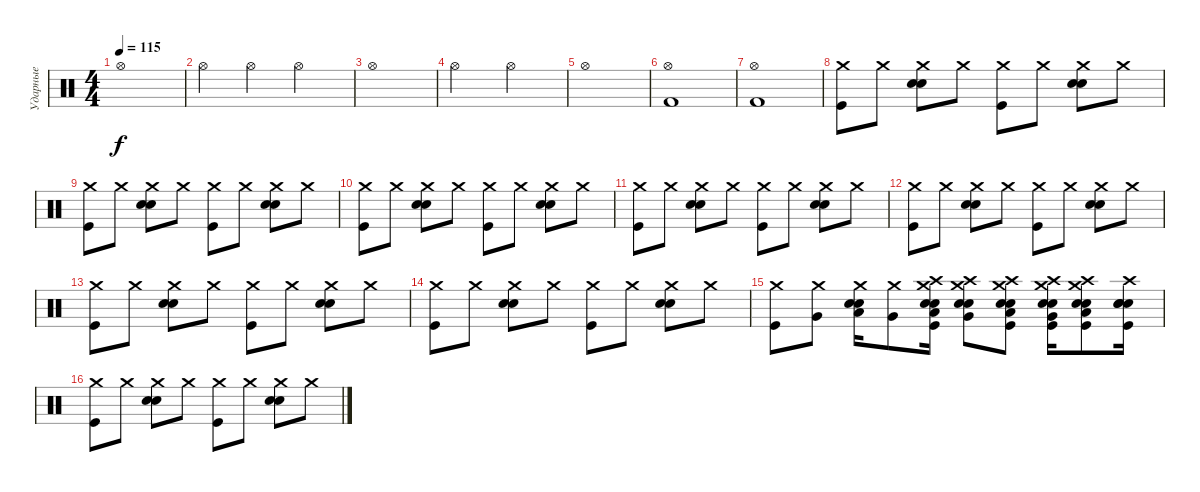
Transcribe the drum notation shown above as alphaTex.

\track ("Ударные" "Ударные") {instrument percussion}
\staff {score}
\articulation defaults
\ts (4 4)
\tempo 115
\clef neutral
\ks c "Hi-Hat (open)".1{dy f}
|
"Hi-Hat (open)".4 "Hi-Hat (open)".4 "Hi-Hat (open)".2 |
"Hi-Hat (open)".1 |
"Hi-Hat (open)".2 "Hi-Hat (open)".2 |
"Hi-Hat (open)".1 |
("Hi-Hat (open)" "Kick (hit) 2").1 |
("Hi-Hat (open)" "Kick (hit) 2").1 |
("Crash medium (hit)" "Kick (hit)").8 "Crash medium (hit)".8 ("Crash medium (hit)" "Snare (hit) 2" "Snare (hit) 2").8 "Crash medium (hit)".8 ("Crash medium (hit)" "Kick (hit)").8 "Crash medium (hit)".8 ("Crash medium (hit)" "Snare (hit) 2" "Snare (hit) 2").8 "Crash medium (hit)".8 |
("Crash medium (hit)" "Kick (hit)").8 "Crash medium (hit)".8 ("Crash medium (hit)" "Snare (hit) 2" "Snare (hit) 2").8 "Crash medium (hit)".8 ("Crash medium (hit)" "Kick (hit)").8 "Crash medium (hit)".8 ("Crash medium (hit)" "Snare (hit) 2" "Snare (hit) 2").8 "Crash medium (hit)".8 |
("Crash medium (hit)" "Kick (hit)").8 "Crash medium (hit)".8 ("Crash medium (hit)" "Snare (hit) 2" "Snare (hit) 2").8 "Crash medium (hit)".8 ("Crash medium (hit)" "Kick (hit)").8 "Crash medium (hit)".8 ("Crash medium (hit)" "Snare (hit) 2" "Snare (hit) 2").8 "Crash medium (hit)".8 |
("Crash medium (hit)" "Kick (hit)").8 "Crash medium (hit)".8 ("Crash medium (hit)" "Snare (hit) 2" "Snare (hit) 2").8 "Crash medium (hit)".8 ("Crash medium (hit)" "Kick (hit)").8 "Crash medium (hit)".8 ("Crash medium (hit)" "Snare (hit) 2" "Snare (hit) 2").8 "Crash medium (hit)".8 |
("Crash medium (hit)" "Kick (hit)").8 "Crash medium (hit)".8 ("Crash medium (hit)" "Snare (hit) 2" "Snare (hit) 2").8 "Crash medium (hit)".8 ("Crash medium (hit)" "Kick (hit)").8 "Crash medium (hit)".8 ("Crash medium (hit)" "Snare (hit) 2" "Snare (hit) 2").8 "Crash medium (hit)".8 |
("Crash medium (hit)" "Kick (hit)").8 "Crash medium (hit)".8 ("Crash medium (hit)" "Snare (hit) 2" "Snare (hit) 2").8 "Crash medium (hit)".8 ("Crash medium (hit)" "Kick (hit)").8 "Crash medium (hit)".8 ("Crash medium (hit)" "Snare (hit) 2" "Snare (hit) 2").8 "Crash medium (hit)".8 |
("Crash medium (hit)" "Kick (hit)").8 "Crash medium (hit)".8 ("Crash medium (hit)" "Snare (hit) 2" "Snare (hit) 2").8 "Crash medium (hit)".8 ("Crash medium (hit)" "Kick (hit)").8 "Crash medium (hit)".8 ("Crash medium (hit)" "Snare (hit) 2" "Snare (hit) 2").8 "Crash medium (hit)".8 |
("Crash medium (hit)" "Kick (hit)").8 ("Crash medium (hit)" "Very Low Tom (hit)").8 ("Crash medium (hit)" "Snare (hit) 2" "Snare (hit) 2" "Low Floor Tom (hit)").16 ("Crash medium (hit)" "Very Low Tom (hit)").8 ("Crash medium (hit)" "Crash high (hit)" "Snare (hit) 2" "Snare (hit) 2" "Low Floor Tom (hit)" "Kick (hit)").16 ("Crash medium (hit)" "Crash high (hit)" "Electric Snare (hit)" "Electric Snare (hit)" "Very Low Tom (hit)").8 ("Crash medium (hit)" "Crash high (hit)" "Snare (hit) 2" "Snare (hit) 2" "Low Floor Tom (hit)" "Kick (hit)").8 ("Crash medium (hit)" "Crash high (hit)" "Electric Snare (hit)" "Electric Snare (hit)" "Very Low Tom (hit)" "Kick (hit)").16 ("Crash medium (hit)" "Crash high (hit)" "Electric Snare (hit)" "Electric Snare (hit)" "Low Floor Tom (hit)" "Kick (hit)").8 ("Crash high (hit)" "Snare (hit) 2" "Snare (hit) 2" "Snare (hit)" "Kick (hit)").16 |
("Crash medium (hit)" "Kick (hit)").8 "Crash medium (hit)".8 ("Crash medium (hit)" "Snare (hit) 2" "Snare (hit) 2").8 "Crash medium (hit)".8 ("Crash medium (hit)" "Kick (hit)").8 "Crash medium (hit)".8 ("Crash medium (hit)" "Snare (hit) 2" "Snare (hit) 2").8 "Crash medium (hit)".8
